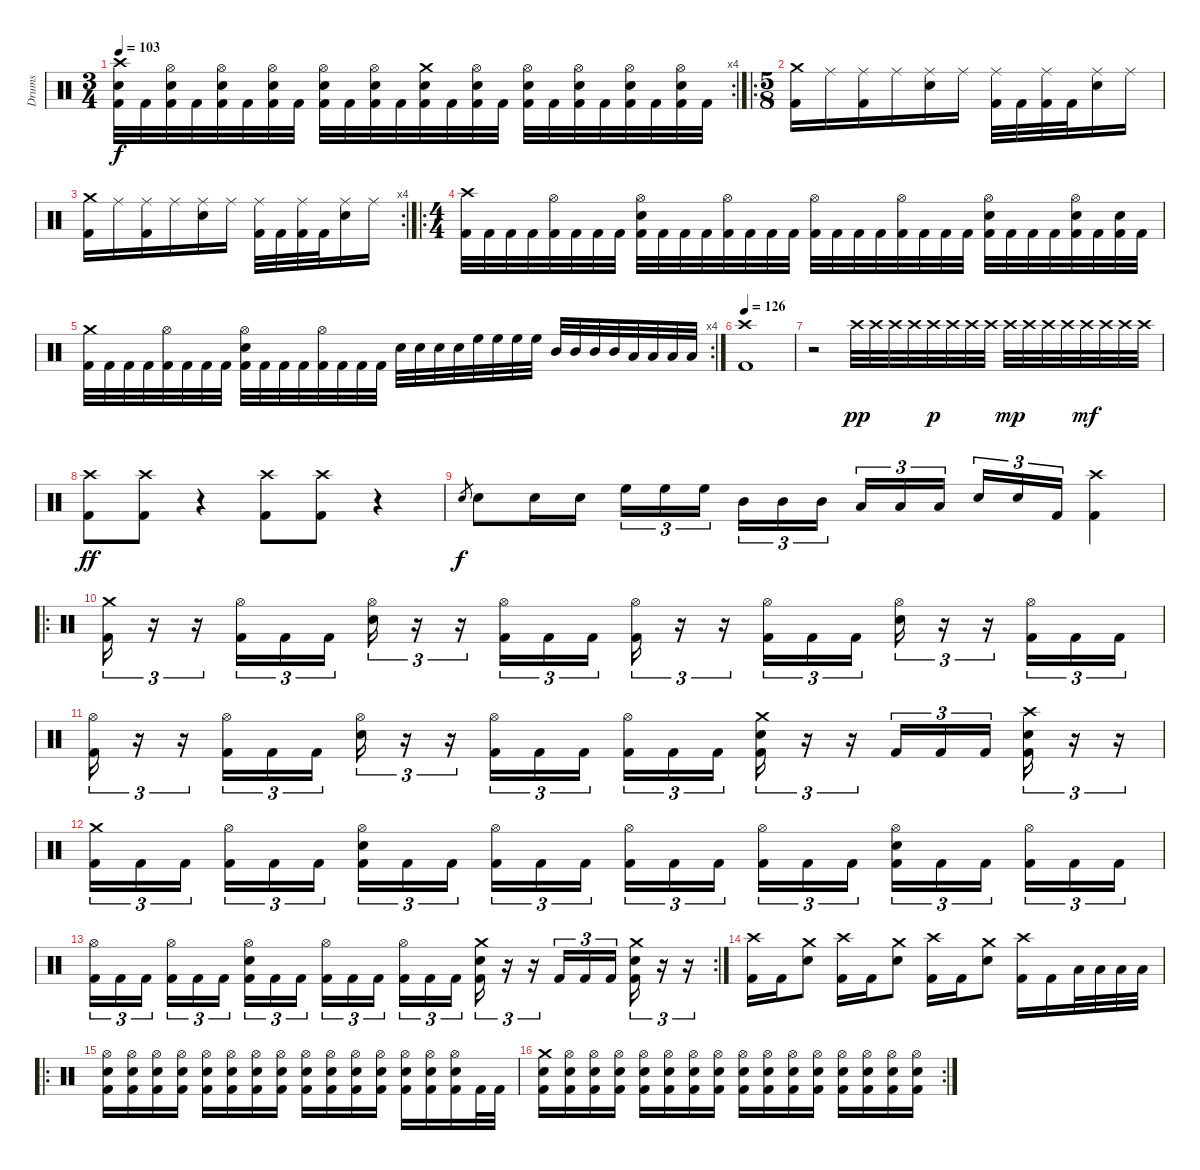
\track ("Drums" "Drums") {instrument percussion}
\staff {score}
\articulation defaults
\rc 4
\ts (3 4)
\tempo 103
\clef neutral
\ks c
("Crash high (hit)" "Electric Snare (hit)" "Kick (hit) 2").32{dy f} "Kick (hit) 2".32 ("Hi-Hat (open)" "Electric Snare (hit)" "Kick (hit) 2").32 "Kick (hit) 2".32 ("Hi-Hat (open)" "Electric Snare (hit)" "Kick (hit) 2").32 "Kick (hit) 2".32 ("Hi-Hat (open)" "Electric Snare (hit)" "Kick (hit) 2").32 "Kick (hit) 2".32 ("Hi-Hat (open)" "Electric Snare (hit)" "Kick (hit) 2").32 "Kick (hit) 2".32 ("Hi-Hat (open)" "Electric Snare (hit)" "Kick (hit) 2").32 "Kick (hit) 2".32 ("Crash medium (hit)" "Electric Snare (hit)" "Kick (hit) 2").32 "Kick (hit) 2".32 ("Hi-Hat (open)" "Electric Snare (hit)" "Kick (hit) 2").32 "Kick (hit) 2".32 ("Hi-Hat (open)" "Electric Snare (hit)" "Kick (hit) 2").32 "Kick (hit) 2".32 ("Hi-Hat (open)" "Electric Snare (hit)" "Kick (hit) 2").32 "Kick (hit) 2".32 ("Hi-Hat (open)" "Electric Snare (hit)" "Kick (hit) 2").32 "Kick (hit) 2".32 ("Hi-Hat (open)" "Electric Snare (hit)" "Kick (hit) 2").32 "Kick (hit) 2".32 |
\ro
\ts (5 8)
("Crash medium (hit)" "Kick (hit) 2").16 "Ride (middle)".16 ("Ride (middle)" "Kick (hit) 2").16 "Ride (middle)".16 ("Ride (middle)" "Electric Snare (hit)").16 "Ride (middle)".16 ("Ride (middle)" "Kick (hit) 2").32 "Kick (hit) 2".32 ("Ride (middle)" "Kick (hit) 2").32 "Kick (hit) 2".32 ("Ride (middle)" "Electric Snare (hit)").16 "Ride (middle)".16 |
\rc 4
("Crash medium (hit)" "Kick (hit) 2").16 "Ride (middle)".16 ("Ride (middle)" "Kick (hit) 2").16 "Ride (middle)".16 ("Ride (middle)" "Electric Snare (hit)").16 "Ride (middle)".16 ("Ride (middle)" "Kick (hit) 2").32 "Kick (hit) 2".32 ("Ride (middle)" "Kick (hit) 2").32 "Kick (hit) 2".32 ("Ride (middle)" "Electric Snare (hit)").16 "Ride (middle)".16 |
\ro
\ts (4 4)
("Crash high (hit)" "Kick (hit) 2").32 "Kick (hit) 2".32 "Kick (hit) 2".32 "Kick (hit) 2".32 ("Hi-Hat (open)" "Kick (hit) 2").32 "Kick (hit) 2".32 "Kick (hit) 2".32 "Kick (hit) 2".32 ("Hi-Hat (open)" "Electric Snare (hit)" "Kick (hit) 2").32 "Kick (hit) 2".32 "Kick (hit) 2".32 "Kick (hit) 2".32 ("Hi-Hat (open)" "Kick (hit) 2").32 "Kick (hit) 2".32 "Kick (hit) 2".32 "Kick (hit) 2".32 ("Hi-Hat (open)" "Kick (hit) 2").32 "Kick (hit) 2".32 "Kick (hit) 2".32 "Kick (hit) 2".32 ("Hi-Hat (open)" "Kick (hit) 2").32 "Kick (hit) 2".32 "Kick (hit) 2".32 "Kick (hit) 2".32 ("Hi-Hat (open)" "Electric Snare (hit)" "Kick (hit) 2").32 "Kick (hit) 2".32 "Kick (hit) 2".32 "Kick (hit) 2".32 ("Hi-Hat (open)" "Electric Snare (hit)" "Kick (hit) 2").32 "Kick (hit) 2".32 ("Electric Snare (hit)" "Kick (hit) 2").32 "Kick (hit) 2".32 |
\rc 4
("Crash medium (hit)" "Kick (hit) 2").32 "Kick (hit) 2".32 "Kick (hit) 2".32 "Kick (hit) 2".32 ("Hi-Hat (open)" "Kick (hit) 2").32 "Kick (hit) 2".32 "Kick (hit) 2".32 "Kick (hit) 2".32 ("Hi-Hat (open)" "Electric Snare (hit)" "Kick (hit) 2").32 "Kick (hit) 2".32 "Kick (hit) 2".32 "Kick (hit) 2".32 ("Hi-Hat (open)" "Kick (hit) 2").32 "Kick (hit) 2".32 "Kick (hit) 2".32 "Kick (hit) 2".32 "Electric Snare (hit)".32 "Electric Snare (hit)".32 "Electric Snare (hit)".32 "Electric Snare (hit)".32 "High Floor Tom (hit)".32 "High Floor Tom (hit)".32 "High Floor Tom (hit)".32 "High Floor Tom (hit)".32 "Mid Tom (hit)".32 "Mid Tom (hit)".32 "Mid Tom (hit)".32 "Mid Tom (hit)".32 "Low Tom (hit)".32 "Low Tom (hit)".32 "Low Tom (hit)".32 "Low Tom (hit)".32 |
\tempo 126
("Crash high (hit)" "Kick (hit) 2").1 |
r.2 "Crash high (hit)".32{dy pp} "Crash high (hit)".32 "Crash high (hit)".32 "Crash high (hit)".32 "Crash high (hit)".32{dy p} "Crash high (hit)".32 "Crash high (hit)".32 "Crash high (hit)".32 "Crash high (hit)".32{dy mp} "Crash high (hit)".32 "Crash high (hit)".32 "Crash high (hit)".32 "Crash high (hit)".32{dy mf} "Crash high (hit)".32 "Crash high (hit)".32 "Crash high (hit)".32 |
("Crash high (hit)" "Kick (hit) 2").8{dy ff} ("Crash high (hit)" "Kick (hit) 2").8 r.4 ("Crash high (hit)" "Kick (hit) 2").8 ("Crash high (hit)" "Kick (hit) 2").8 r.4 |
"Electric Snare (hit)".8{gr dy f} "Electric Snare (hit)".8 "Electric Snare (hit)".16 "Electric Snare (hit)".16 "High Floor Tom (hit)".16{tu (3 2)} "High Floor Tom (hit)".16{tu (3 2)} "High Floor Tom (hit)".16{tu (3 2)} "Mid Tom (hit)".16{tu (3 2)} "Mid Tom (hit)".16{tu (3 2)} "Mid Tom (hit)".16{tu (3 2)} "Low Tom (hit)".16{tu (3 2)} "Low Tom (hit)".16{tu (3 2)} "Low Tom (hit)".16{tu (3 2)} "Electric Snare (hit)".16{tu (3 2)} "Electric Snare (hit)".16{tu (3 2)} "Kick (hit) 2".16{tu (3 2)} ("Crash high (hit)" "Kick (hit) 2").4 |
\ro
("Crash medium (hit)" "Kick (hit) 2").16{tu (3 2)} r.16{tu (3 2)} r.16{tu (3 2)} ("Hi-Hat (open)" "Kick (hit) 2").16{tu (3 2)} "Kick (hit) 2".16{tu (3 2)} "Kick (hit) 2".16{tu (3 2)} ("Hi-Hat (open)" "Electric Snare (hit)").16{tu (3 2)} r.16{tu (3 2)} r.16{tu (3 2)} ("Hi-Hat (open)" "Kick (hit) 2").16{tu (3 2)} "Kick (hit) 2".16{tu (3 2)} "Kick (hit) 2".16{tu (3 2)} ("Hi-Hat (open)" "Kick (hit) 2").16{tu (3 2)} r.16{tu (3 2)} r.16{tu (3 2)} ("Hi-Hat (open)" "Kick (hit) 2").16{tu (3 2)} "Kick (hit) 2".16{tu (3 2)} "Kick (hit) 2".16{tu (3 2)} ("Hi-Hat (open)" "Electric Snare (hit)").16{tu (3 2)} r.16{tu (3 2)} r.16{tu (3 2)} ("Hi-Hat (open)" "Kick (hit) 2").16{tu (3 2)} "Kick (hit) 2".16{tu (3 2)} "Kick (hit) 2".16{tu (3 2)} |
("Hi-Hat (open)" "Kick (hit) 2").16{tu (3 2)} r.16{tu (3 2)} r.16{tu (3 2)} ("Hi-Hat (open)" "Kick (hit) 2").16{tu (3 2)} "Kick (hit) 2".16{tu (3 2)} "Kick (hit) 2".16{tu (3 2)} ("Hi-Hat (open)" "Electric Snare (hit)").16{tu (3 2)} r.16{tu (3 2)} r.16{tu (3 2)} ("Hi-Hat (open)" "Kick (hit) 2").16{tu (3 2)} "Kick (hit) 2".16{tu (3 2)} "Kick (hit) 2".16{tu (3 2)} ("Hi-Hat (open)" "Kick (hit) 2").16{tu (3 2)} "Kick (hit) 2".16{tu (3 2)} "Kick (hit) 2".16{tu (3 2)} ("Crash medium (hit)" "Electric Snare (hit)" "Kick (hit) 2").16{tu (3 2)} r.16{tu (3 2)} r.16{tu (3 2)} "Kick (hit) 2".16{tu (3 2)} "Kick (hit) 2".16{tu (3 2)} "Kick (hit) 2".16{tu (3 2)} ("Crash high (hit)" "Electric Snare (hit)" "Kick (hit) 2").16{tu (3 2)} r.16{tu (3 2)} r.16{tu (3 2)} |
("Crash medium (hit)" "Kick (hit) 2").16{tu (3 2)} "Kick (hit) 2".16{tu (3 2)} "Kick (hit) 2".16{tu (3 2)} ("Hi-Hat (open)" "Kick (hit) 2").16{tu (3 2)} "Kick (hit) 2".16{tu (3 2)} "Kick (hit) 2".16{tu (3 2)} ("Hi-Hat (open)" "Electric Snare (hit)" "Kick (hit) 2").16{tu (3 2)} "Kick (hit) 2".16{tu (3 2)} "Kick (hit) 2".16{tu (3 2)} ("Hi-Hat (open)" "Kick (hit) 2").16{tu (3 2)} "Kick (hit) 2".16{tu (3 2)} "Kick (hit) 2".16{tu (3 2)} ("Hi-Hat (open)" "Kick (hit) 2").16{tu (3 2)} "Kick (hit) 2".16{tu (3 2)} "Kick (hit) 2".16{tu (3 2)} ("Hi-Hat (open)" "Kick (hit) 2").16{tu (3 2)} "Kick (hit) 2".16{tu (3 2)} "Kick (hit) 2".16{tu (3 2)} ("Hi-Hat (open)" "Electric Snare (hit)" "Kick (hit) 2").16{tu (3 2)} "Kick (hit) 2".16{tu (3 2)} "Kick (hit) 2".16{tu (3 2)} ("Hi-Hat (open)" "Kick (hit) 2").16{tu (3 2)} "Kick (hit) 2".16{tu (3 2)} "Kick (hit) 2".16{tu (3 2)} |
\rc 2
("Hi-Hat (open)" "Kick (hit) 2").16{tu (3 2)} "Kick (hit) 2".16{tu (3 2)} "Kick (hit) 2".16{tu (3 2)} ("Hi-Hat (open)" "Kick (hit) 2").16{tu (3 2)} "Kick (hit) 2".16{tu (3 2)} "Kick (hit) 2".16{tu (3 2)} ("Hi-Hat (open)" "Electric Snare (hit)" "Kick (hit) 2").16{tu (3 2)} "Kick (hit) 2".16{tu (3 2)} "Kick (hit) 2".16{tu (3 2)} ("Hi-Hat (open)" "Kick (hit) 2").16{tu (3 2)} "Kick (hit) 2".16{tu (3 2)} "Kick (hit) 2".16{tu (3 2)} ("Hi-Hat (open)" "Kick (hit) 2").16{tu (3 2)} "Kick (hit) 2".16{tu (3 2)} "Kick (hit) 2".16{tu (3 2)} ("Crash medium (hit)" "Electric Snare (hit)" "Kick (hit) 2").16{tu (3 2)} r.16{tu (3 2)} r.16{tu (3 2)} "Kick (hit) 2".16{tu (3 2)} "Kick (hit) 2".16{tu (3 2)} "Kick (hit) 2".16{tu (3 2)} ("Crash medium (hit)" "Electric Snare (hit)" "Kick (hit) 2").16{tu (3 2)} r.16{tu (3 2)} r.16{tu (3 2)} |
("Crash high (hit)" "Kick (hit) 2").16 "Kick (hit) 2".16 ("Crash medium (hit)" "Electric Snare (hit)").8 ("Crash high (hit)" "Kick (hit) 2").16 "Kick (hit) 2".16 ("Crash medium (hit)" "Electric Snare (hit)").8 ("Crash high (hit)" "Kick (hit) 2").16 "Kick (hit) 2".16 ("Crash medium (hit)" "Electric Snare (hit)").8 ("Crash high (hit)" "Kick (hit) 2").16 "Kick (hit) 2".16 "Low Tom (hit)".32 "Low Tom (hit)".32 "Low Tom (hit)".32 "Low Tom (hit)".32 |
\ro
("Hi-Hat (open)" "Electric Snare (hit)" "Kick (hit) 2").16 ("Hi-Hat (open)" "Electric Snare (hit)" "Kick (hit) 2").16 ("Hi-Hat (open)" "Electric Snare (hit)" "Kick (hit) 2").16 ("Hi-Hat (open)" "Electric Snare (hit)" "Kick (hit) 2").16 ("Hi-Hat (open)" "Electric Snare (hit)" "Kick (hit) 2").16 ("Hi-Hat (open)" "Electric Snare (hit)" "Kick (hit) 2").16 ("Hi-Hat (open)" "Electric Snare (hit)" "Kick (hit) 2").16 ("Hi-Hat (open)" "Electric Snare (hit)" "Kick (hit) 2").16 ("Hi-Hat (open)" "Electric Snare (hit)" "Kick (hit) 2").16 ("Hi-Hat (open)" "Electric Snare (hit)" "Kick (hit) 2").16 ("Hi-Hat (open)" "Electric Snare (hit)" "Kick (hit) 2").16 ("Hi-Hat (open)" "Electric Snare (hit)" "Kick (hit) 2").16 ("Hi-Hat (open)" "Electric Snare (hit)" "Kick (hit) 2").16 ("Hi-Hat (open)" "Electric Snare (hit)" "Kick (hit) 2").16 ("Hi-Hat (open)" "Electric Snare (hit)" "Kick (hit) 2").16 "Kick (hit) 2".32 "Kick (hit) 2".32 |
\rc 2
("Crash medium (hit)" "Electric Snare (hit)" "Kick (hit) 2").16 ("Hi-Hat (open)" "Electric Snare (hit)" "Kick (hit) 2").16 ("Hi-Hat (open)" "Electric Snare (hit)" "Kick (hit) 2").16 ("Hi-Hat (open)" "Electric Snare (hit)" "Kick (hit) 2").16 ("Hi-Hat (open)" "Electric Snare (hit)" "Kick (hit) 2").16 ("Hi-Hat (open)" "Electric Snare (hit)" "Kick (hit) 2").16 ("Hi-Hat (open)" "Electric Snare (hit)" "Kick (hit) 2").16 ("Hi-Hat (open)" "Electric Snare (hit)" "Kick (hit) 2").16 ("Hi-Hat (open)" "Electric Snare (hit)" "Kick (hit) 2").16 ("Hi-Hat (open)" "Electric Snare (hit)" "Kick (hit) 2").16 ("Hi-Hat (open)" "Electric Snare (hit)" "Kick (hit) 2").16 ("Hi-Hat (open)" "Electric Snare (hit)" "Kick (hit) 2").16 ("Hi-Hat (open)" "Electric Snare (hit)" "Kick (hit) 2").16 ("Hi-Hat (open)" "Electric Snare (hit)" "Kick (hit) 2").16 ("Hi-Hat (open)" "Electric Snare (hit)" "Kick (hit) 2").16 ("Hi-Hat (open)" "Electric Snare (hit)" "Kick (hit) 2").16
